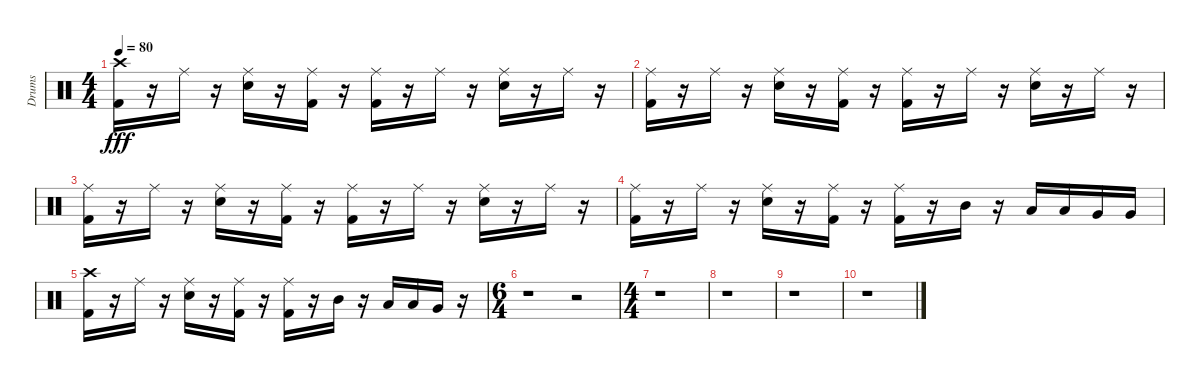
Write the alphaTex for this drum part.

\track ("Drums" "Drums") {instrument percussion}
\staff {score}
\articulation defaults
\ts (4 4)
\tempo 80
\clef neutral
\ks c
("Kick (hit) 2" "Crash high (hit)").16{dy fff} r.16 "Ride (middle)".16 r.16 ("Ride (middle)" "Electric Snare (hit)").16 r.16 ("Ride (middle)" "Kick (hit) 2").16 r.16 ("Ride (middle)" "Kick (hit) 2").16 r.16 "Ride (middle)".16 r.16 ("Ride (middle)" "Electric Snare (hit)").16 r.16 "Ride (middle)".16 r.16 |
("Kick (hit) 2" "Ride (middle)").16 r.16 "Ride (middle)".16 r.16 ("Electric Snare (hit)" "Ride (middle)").16 r.16 ("Kick (hit) 2" "Ride (middle)").16 r.16 ("Kick (hit) 2" "Ride (middle)").16 r.16 "Ride (middle)".16 r.16 ("Electric Snare (hit)" "Ride (middle)").16 r.16 "Ride (middle)".16 r.16 |
("Ride (middle)" "Kick (hit) 2").16 r.16 "Ride (middle)".16 r.16 ("Ride (middle)" "Electric Snare (hit)").16 r.16 ("Ride (middle)" "Kick (hit) 2").16 r.16 ("Ride (middle)" "Kick (hit) 2").16 r.16 "Ride (middle)".16 r.16 ("Ride (middle)" "Electric Snare (hit)").16 r.16 "Ride (middle)".16 r.16 |
("Ride (middle)" "Kick (hit) 2").16 r.16 "Ride (middle)".16 r.16 ("Ride (middle)" "Electric Snare (hit)").16 r.16 ("Ride (middle)" "Kick (hit) 2").16 r.16 ("Kick (hit) 2" "Ride (middle)").16 r.16 "Mid Tom (hit)".16 r.16 "Low Tom (hit)".16 "Low Tom (hit)".16 "Very Low Tom (hit)".16 "Very Low Tom (hit)".16 |
("Crash high (hit)" "Kick (hit) 2").16 r.16 "Ride (middle)".16 r.16 ("Electric Snare (hit)" "Ride (middle)").16 r.16 ("Kick (hit) 2" "Ride (middle)").16 r.16 ("Kick (hit) 2" "Ride (middle)").16 r.16 "Mid Tom (hit)".16 r.16 "Low Tom (hit)".16 "Low Tom (hit)".16 "Very Low Tom (hit)".16 r.16 |
\ts (6 4)
r.1 r.2 |
\ts (4 4)
r.1 |
r.1 |
r.1 |
r.1
